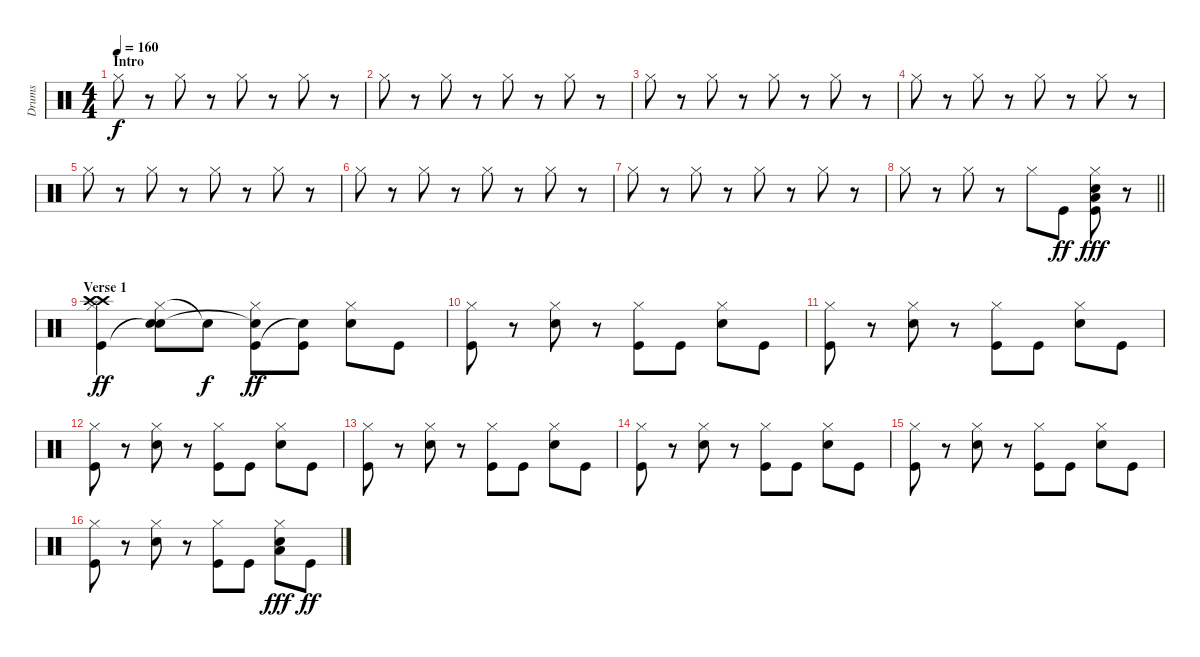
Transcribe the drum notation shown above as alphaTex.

\track ("Drums" "Drums") {instrument percussion}
\staff {score}
\articulation defaults
\ts (4 4)
\section ("" "Intro")
\tempo 160
\clef neutral
\ks c "Hi-Hat (closed)".8{dy f volume 12}
r.8 "Hi-Hat (closed)".8 r.8 "Hi-Hat (closed)".8 r.8 "Hi-Hat (closed)".8 r.8 |
"Hi-Hat (closed)".8 r.8 "Hi-Hat (closed)".8 r.8 "Hi-Hat (closed)".8 r.8 "Hi-Hat (closed)".8 r.8 |
"Hi-Hat (closed)".8 r.8 "Hi-Hat (closed)".8 r.8 "Hi-Hat (closed)".8 r.8 "Hi-Hat (closed)".8 r.8 |
"Hi-Hat (closed)".8 r.8 "Hi-Hat (closed)".8 r.8 "Hi-Hat (closed)".8 r.8 "Hi-Hat (closed)".8 r.8 |
"Hi-Hat (closed)".8 r.8 "Hi-Hat (closed)".8 r.8 "Hi-Hat (closed)".8 r.8 "Hi-Hat (closed)".8 r.8 |
"Hi-Hat (closed)".8 r.8 "Hi-Hat (closed)".8 r.8 "Hi-Hat (closed)".8 r.8 "Hi-Hat (closed)".8 r.8 |
"Hi-Hat (closed)".8 r.8 "Hi-Hat (closed)".8 r.8 "Hi-Hat (closed)".8 r.8 "Hi-Hat (closed)".8 r.8 |
\barLineRight lightlight "Hi-Hat (closed)".8
r.8 "Hi-Hat (closed)".8 r.8 "Hi-Hat (closed)".8 "Kick (hit)".8{dy ff} ("Kick (hit)" "Snare (hit) 2" "Low Floor Tom (hit)" "Hi-Hat (closed)").8{dy fff} r.8 |
\section ("" "Verse 1")
("Crash high (hit)" "Hi-Hat (closed)" "Kick (hit)" "Crash high (hit)").4{dy ff} ("Hi-Hat (closed)" "Snare (hit) 2" "Snare (hit)"{t}).8 "Snare (hit)"{t}.8{dy f} ("Hi-Hat (closed)" "Kick (hit)" "Snare (hit)"{t}).8{dy ff} ("Kick (hit)" "Snare (hit)"{t}).8 ("Hi-Hat (closed)" "Snare (hit) 2").8 "Kick (hit)".8 |
("Hi-Hat (closed)" "Kick (hit)").8 r.8 ("Hi-Hat (closed)" "Snare (hit) 2").8 r.8 ("Hi-Hat (closed)" "Kick (hit)").8 "Kick (hit)".8 ("Hi-Hat (closed)" "Snare (hit) 2").8 "Kick (hit)".8 |
("Hi-Hat (closed)" "Kick (hit)").8 r.8 ("Hi-Hat (closed)" "Snare (hit) 2").8 r.8 ("Hi-Hat (closed)" "Kick (hit)").8 "Kick (hit)".8 ("Hi-Hat (closed)" "Snare (hit) 2").8 "Kick (hit)".8 |
("Hi-Hat (closed)" "Kick (hit)").8 r.8 ("Hi-Hat (closed)" "Snare (hit) 2").8 r.8 ("Hi-Hat (closed)" "Kick (hit)").8 "Kick (hit)".8 ("Hi-Hat (closed)" "Snare (hit) 2").8 "Kick (hit)".8 |
("Kick (hit)" "Hi-Hat (closed)").8 r.8 ("Hi-Hat (closed)" "Snare (hit) 2").8 r.8 ("Kick (hit)" "Hi-Hat (closed)").8 "Kick (hit)".8 ("Hi-Hat (closed)" "Snare (hit) 2").8 "Kick (hit)".8 |
("Hi-Hat (closed)" "Kick (hit)").8 r.8 ("Hi-Hat (closed)" "Snare (hit) 2").8 r.8 ("Hi-Hat (closed)" "Kick (hit)").8 "Kick (hit)".8 ("Hi-Hat (closed)" "Snare (hit) 2").8 "Kick (hit)".8 |
("Hi-Hat (closed)" "Kick (hit)").8 r.8 ("Hi-Hat (closed)" "Snare (hit) 2").8 r.8 ("Hi-Hat (closed)" "Kick (hit)").8 "Kick (hit)".8 ("Hi-Hat (closed)" "Snare (hit) 2").8 "Kick (hit)".8 |
("Hi-Hat (closed)" "Kick (hit)").8 r.8 ("Hi-Hat (closed)" "Snare (hit) 2").8 r.8 ("Hi-Hat (closed)" "Kick (hit)").8 "Kick (hit)".8 ("Snare (hit) 2" "Hi-Hat (closed)" "Low Floor Tom (hit)").8{dy fff} "Kick (hit)".8{dy ff}
